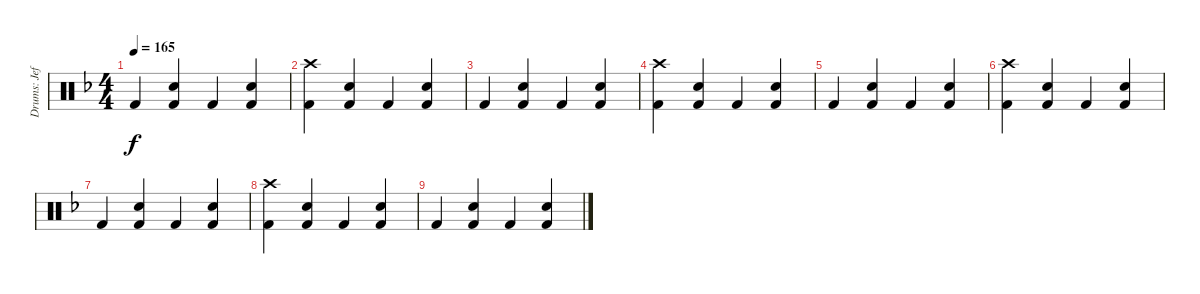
\track ("Drums: Jeff" "Drums: Jef") {instrument percussion}
\staff {score}
\articulation defaults
\ts (4 4)
\tempo 165
\clef neutral
\ks f "Kick (hit) 2".4{dy f}
("Snare (hit) 2" "Kick (hit) 2").4 "Kick (hit) 2".4 ("Snare (hit) 2" "Kick (hit) 2").4 |
("Crash high (hit)" "Kick (hit) 2").4 ("Snare (hit) 2" "Kick (hit) 2").4 "Kick (hit) 2".4 ("Snare (hit) 2" "Kick (hit) 2").4 |
"Kick (hit) 2".4 ("Snare (hit) 2" "Kick (hit) 2").4 "Kick (hit) 2".4 ("Snare (hit) 2" "Kick (hit) 2").4 |
("Crash high (hit)" "Kick (hit) 2").4 ("Snare (hit) 2" "Kick (hit) 2").4 "Kick (hit) 2".4 ("Snare (hit) 2" "Kick (hit) 2").4 |
"Kick (hit) 2".4 ("Snare (hit) 2" "Kick (hit) 2").4 "Kick (hit) 2".4 ("Snare (hit) 2" "Kick (hit) 2").4 |
("Crash high (hit)" "Kick (hit) 2").4 ("Snare (hit) 2" "Kick (hit) 2").4 "Kick (hit) 2".4 ("Snare (hit) 2" "Kick (hit) 2").4 |
"Kick (hit) 2".4 ("Snare (hit) 2" "Kick (hit) 2").4 "Kick (hit) 2".4 ("Snare (hit) 2" "Kick (hit) 2").4 |
("Crash high (hit)" "Kick (hit) 2").4 ("Snare (hit) 2" "Kick (hit) 2").4 "Kick (hit) 2".4 ("Snare (hit) 2" "Kick (hit) 2").4 |
"Kick (hit) 2".4 ("Snare (hit) 2" "Kick (hit) 2").4 "Kick (hit) 2".4 ("Snare (hit) 2" "Kick (hit) 2").4
